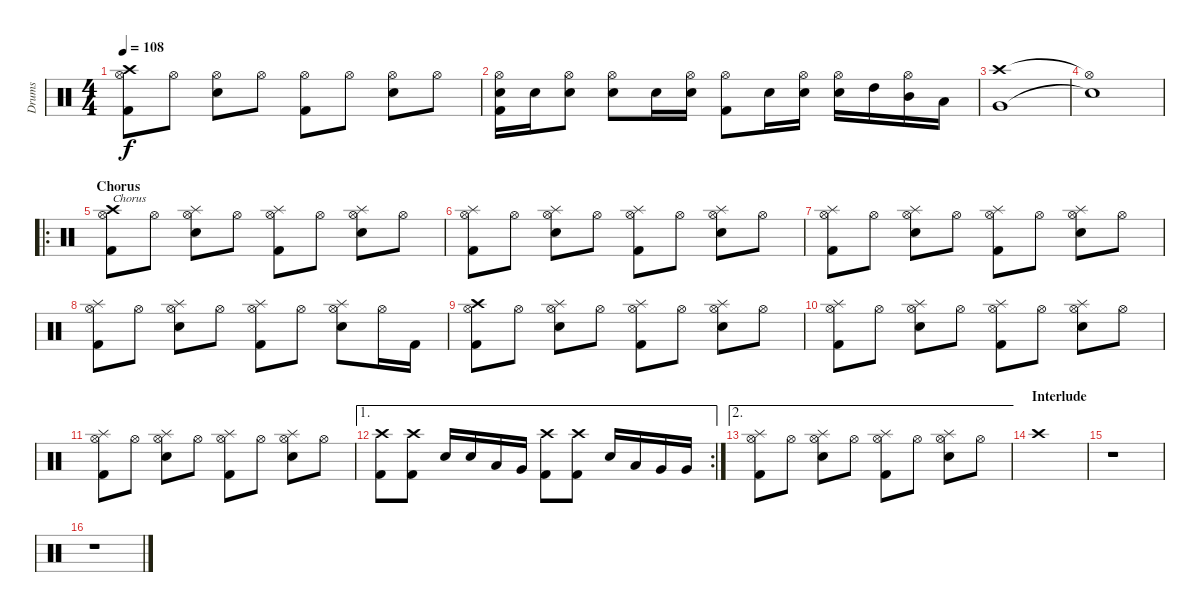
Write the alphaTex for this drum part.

\track ("Drums" "Drums") {instrument percussion}
\staff {score}
\articulation defaults
\ts (4 4)
\tempo 108
\clef neutral
\ks c
("Crash high (hit)" "Hi-Hat (open)" "Kick (hit) 2").8{dy f} "Hi-Hat (open)".8 ("Hi-Hat (open)" "Snare (hit) 2").8 "Hi-Hat (open)".8 ("Hi-Hat (open)" "Kick (hit) 2").8 "Hi-Hat (open)".8 ("Hi-Hat (open)" "Snare (hit) 2").8 "Hi-Hat (open)".8 |
("Hi-Hat (open)" "Snare (hit) 2" "Kick (hit) 2").16 "Snare (hit) 2".16 ("Hi-Hat (open)" "Snare (hit) 2").8 ("Hi-Hat (open)" "Snare (hit) 2").8 "Snare (hit) 2".16 ("Hi-Hat (open)" "Snare (hit) 2").16 ("Hi-Hat (open)" "Kick (hit) 2").8 "Snare (hit) 2".16 ("Hi-Hat (open)" "Snare (hit) 2").16 ("Hi-Hat (open)" "Snare (hit) 2").16 "High Tom (hit)".16 ("Hi-Hat (open)" "Mid Tom (hit)").16 "Low Tom (hit)".16 |
("Crash high (hit)" "Very Low Tom (hit)").1 |
("Hi-Hat (open)"{t} "Snare (hit)"{t}).1 |
\ro
\section ("" "Chorus")
("Crash high (hit)" "Hi-Hat (open)" "Kick (hit) 2").8{txt "Chorus"} "Hi-Hat (open)".8 ("Splash (hit)" "Hi-Hat (open)" "Snare (hit) 2").8 "Hi-Hat (open)".8 ("Splash (hit)" "Hi-Hat (open)" "Kick (hit) 2").8 "Hi-Hat (open)".8 ("Splash (hit)" "Hi-Hat (open)" "Snare (hit) 2").8 "Hi-Hat (open)".8 |
("Splash (hit)" "Hi-Hat (open)" "Kick (hit) 2").8 "Hi-Hat (open)".8 ("Splash (hit)" "Hi-Hat (open)" "Snare (hit) 2").8 "Hi-Hat (open)".8 ("Splash (hit)" "Hi-Hat (open)" "Kick (hit) 2").8 "Hi-Hat (open)".8 ("Splash (hit)" "Hi-Hat (open)" "Snare (hit) 2").8 "Hi-Hat (open)".8 |
("Splash (hit)" "Hi-Hat (open)" "Kick (hit) 2").8 "Hi-Hat (open)".8 ("Splash (hit)" "Hi-Hat (open)" "Snare (hit) 2").8 "Hi-Hat (open)".8 ("Splash (hit)" "Hi-Hat (open)" "Kick (hit) 2").8 "Hi-Hat (open)".8 ("Splash (hit)" "Hi-Hat (open)" "Snare (hit) 2").8 "Hi-Hat (open)".8 |
("Splash (hit)" "Hi-Hat (open)" "Kick (hit) 2").8 "Hi-Hat (open)".8 ("Splash (hit)" "Hi-Hat (open)" "Snare (hit) 2").8 "Hi-Hat (open)".8 ("Splash (hit)" "Hi-Hat (open)" "Kick (hit) 2").8 "Hi-Hat (open)".8 ("Splash (hit)" "Hi-Hat (open)" "Snare (hit) 2").8 "Hi-Hat (open)".16 "Kick (hit) 2".16 |
("Crash high (hit)" "Hi-Hat (open)" "Kick (hit) 2").8 "Hi-Hat (open)".8 ("Splash (hit)" "Hi-Hat (open)" "Snare (hit) 2").8 "Hi-Hat (open)".8 ("Splash (hit)" "Hi-Hat (open)" "Kick (hit) 2").8 "Hi-Hat (open)".8 ("Splash (hit)" "Hi-Hat (open)" "Snare (hit) 2").8 "Hi-Hat (open)".8 |
("Splash (hit)" "Hi-Hat (open)" "Kick (hit) 2").8 "Hi-Hat (open)".8 ("Splash (hit)" "Hi-Hat (open)" "Snare (hit) 2").8 "Hi-Hat (open)".8 ("Splash (hit)" "Hi-Hat (open)" "Kick (hit) 2").8 "Hi-Hat (open)".8 ("Splash (hit)" "Hi-Hat (open)" "Snare (hit) 2").8 "Hi-Hat (open)".8 |
("Splash (hit)" "Hi-Hat (open)" "Kick (hit) 2").8 "Hi-Hat (open)".8 ("Splash (hit)" "Hi-Hat (open)" "Snare (hit) 2").8 "Hi-Hat (open)".8 ("Splash (hit)" "Hi-Hat (open)" "Kick (hit) 2").8 "Hi-Hat (open)".8 ("Splash (hit)" "Hi-Hat (open)" "Snare (hit) 2").8 "Hi-Hat (open)".8 |
\ae 1
\rc 2
("Crash high (hit)" "Kick (hit) 2").8 ("Crash high (hit)" "Kick (hit) 2").8 "Snare (hit) 2".16 "Snare (hit) 2".16 "Low Tom (hit)".16 "Very Low Tom (hit)".16 ("Crash high (hit)" "Kick (hit) 2").8 ("Crash high (hit)" "Kick (hit) 2").8 "Snare (hit) 2".16 "Low Tom (hit)".16 "Very Low Tom (hit)".16 "Very Low Tom (hit)".16 |
\ae 2
("Splash (hit)" "Hi-Hat (open)" "Kick (hit) 2").8 "Hi-Hat (open)".8 ("Splash (hit)" "Hi-Hat (open)" "Snare (hit) 2").8 "Hi-Hat (open)".8 ("Splash (hit)" "Hi-Hat (open)" "Kick (hit) 2").8 "Hi-Hat (open)".8 ("Splash (hit)" "Hi-Hat (open)" "Snare (hit) 2").8 "Hi-Hat (open)".8 |
\section ("" "Interlude")
"Crash high (hit)".1 |
r.1 |
r.1
